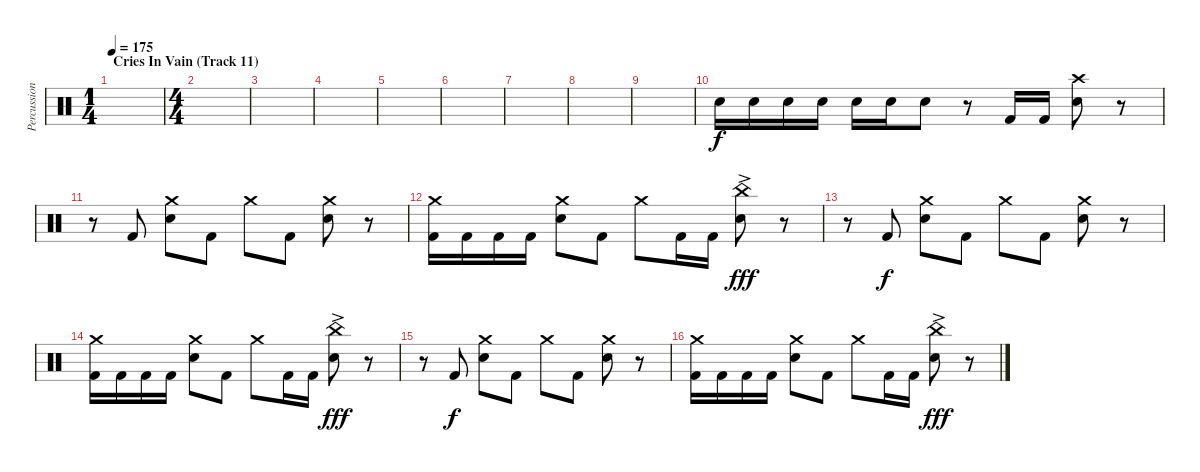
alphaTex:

\track ("Percussion (Moose)" "Percussion") {instrument percussion}
\staff {score}
\articulation defaults
\ts (1 4)
\section ("" "Cries In Vain (Track 11)")
\tempo 175
\clef neutral
\ks c
|
\ts (4 4)
|
|
|
|
|
|
|
|
"Electric Snare (hit)".16 "Electric Snare (hit)".16 "Electric Snare (hit)".16 "Electric Snare (hit)".16 "Electric Snare (hit)".16 "Electric Snare (hit)".16 "Electric Snare (hit)".8 r.8 "Kick (hit) 2".16 "Kick (hit) 2".16 ("Crash high (hit)" "Electric Snare (hit)").8 r.8 |
r.8 "Kick (hit) 2".8 ("Crash medium (hit)" "Electric Snare (hit)").8 "Kick (hit) 2".8 "Crash medium (hit)".8 "Kick (hit) 2".8 ("Crash medium (hit)" "Electric Snare (hit)").8 r.8 |
("Crash medium (hit)" "Kick (hit) 2").16 "Kick (hit) 2".16 "Kick (hit) 2".16 "Kick (hit) 2".16 ("Crash medium (hit)" "Electric Snare (hit)").8 "Kick (hit) 2".8 "Crash medium (hit)".8 "Kick (hit) 2".16 "Kick (hit) 2".16 ("China (hit)"{ac} "Electric Snare (hit)").8{dy fff} r.8 |
r.8 "Kick (hit) 2".8{dy f} ("Crash medium (hit)" "Electric Snare (hit)").8 "Kick (hit) 2".8 "Crash medium (hit)".8 "Kick (hit) 2".8 ("Crash medium (hit)" "Electric Snare (hit)").8 r.8 |
("Crash medium (hit)" "Kick (hit) 2").16 "Kick (hit) 2".16 "Kick (hit) 2".16 "Kick (hit) 2".16 ("Crash medium (hit)" "Electric Snare (hit)").8 "Kick (hit) 2".8 "Crash medium (hit)".8 "Kick (hit) 2".16 "Kick (hit) 2".16 ("China (hit)"{ac} "Electric Snare (hit)").8{dy fff} r.8 |
r.8 "Kick (hit) 2".8{dy f} ("Crash medium (hit)" "Electric Snare (hit)").8 "Kick (hit) 2".8 "Crash medium (hit)".8 "Kick (hit) 2".8 ("Crash medium (hit)" "Electric Snare (hit)").8 r.8 |
("Crash medium (hit)" "Kick (hit) 2").16 "Kick (hit) 2".16 "Kick (hit) 2".16 "Kick (hit) 2".16 ("Crash medium (hit)" "Electric Snare (hit)").8 "Kick (hit) 2".8 "Crash medium (hit)".8 "Kick (hit) 2".16 "Kick (hit) 2".16 ("China (hit)"{ac} "Electric Snare (hit)").8{dy fff} r.8
